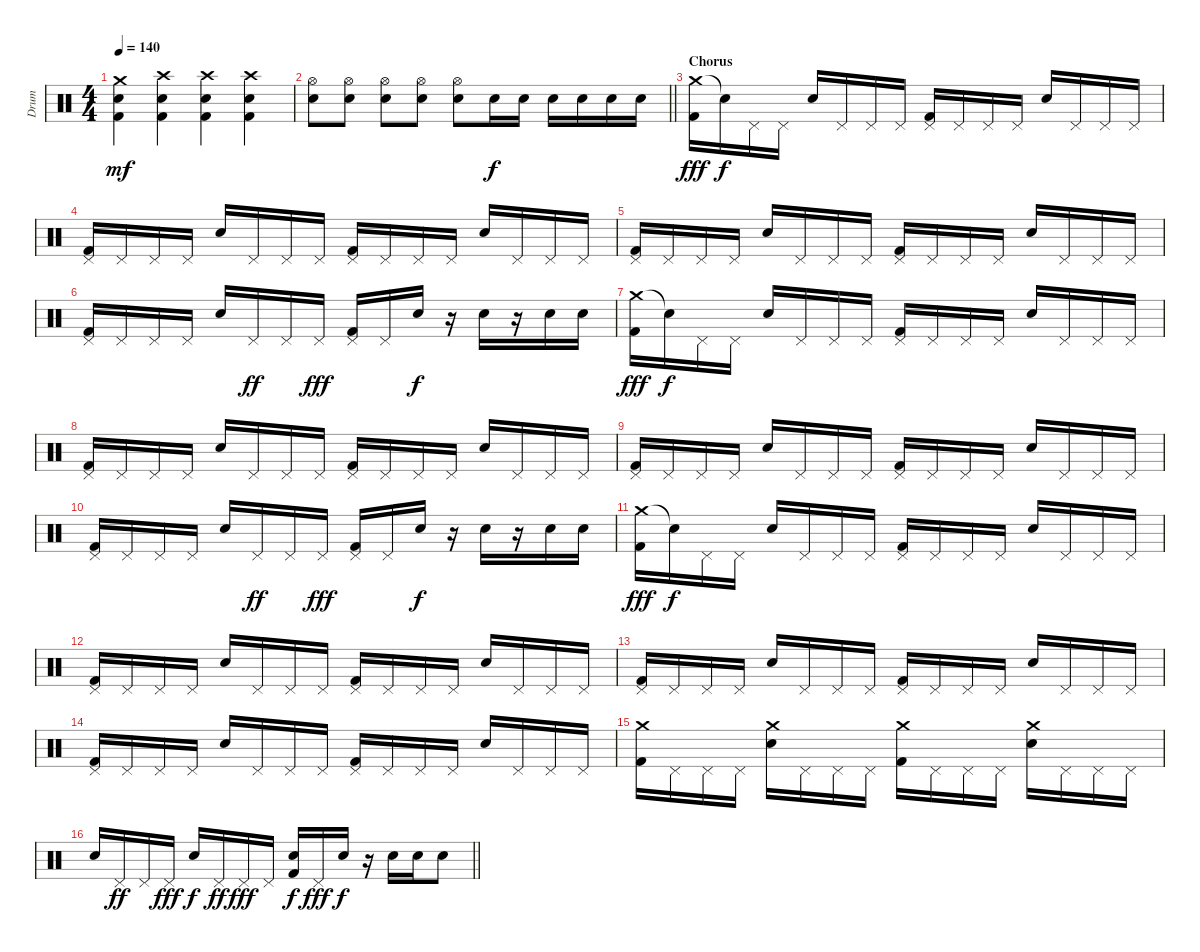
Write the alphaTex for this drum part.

\track ("Drum" "Drum") {instrument percussion}
\staff {score}
\articulation defaults
\ts (4 4)
\tempo 140
\clef neutral
\ks c
("Crash medium (hit)" "Snare (hit) 2" "Kick (hit) 2").4{dy mf} ("Crash high (hit)" "Snare (hit) 2" "Kick (hit) 2").4 ("Crash high (hit)" "Snare (hit) 2" "Kick (hit) 2").4 ("Crash high (hit)" "Snare (hit) 2" "Kick (hit) 2").4 |
\barLineRight lightlight
("Hi-Hat (open)" "Snare (hit) 2").8 ("Hi-Hat (open)" "Snare (hit) 2").8 ("Hi-Hat (open)" "Snare (hit) 2").8 ("Hi-Hat (open)" "Snare (hit) 2").8 ("Hi-Hat (open)" "Snare (hit) 2").8 "Snare (hit) 2".16{dy f} "Snare (hit) 2".16 "Snare (hit) 2".16 "Snare (hit) 2".16 "Snare (hit) 2".16 "Snare (hit) 2".16 |
\section ("" "Chorus")
("Crash medium (hit)" "Kick (hit) 2").16{dy fff} "Snare (hit)"{t}.16{dy f} "Pedal Hi-Hat (hit)".16 "Pedal Hi-Hat (hit)".16 "Snare (hit) 2".16 "Pedal Hi-Hat (hit)".16 "Pedal Hi-Hat (hit)".16 "Pedal Hi-Hat (hit)".16 ("Pedal Hi-Hat (hit)" "Kick (hit) 2").16 "Pedal Hi-Hat (hit)".16 "Pedal Hi-Hat (hit)".16 "Pedal Hi-Hat (hit)".16 "Snare (hit) 2".16 "Pedal Hi-Hat (hit)".16 "Pedal Hi-Hat (hit)".16 "Pedal Hi-Hat (hit)".16 |
("Pedal Hi-Hat (hit)" "Kick (hit) 2").16 "Pedal Hi-Hat (hit)".16 "Pedal Hi-Hat (hit)".16 "Pedal Hi-Hat (hit)".16 "Snare (hit) 2".16 "Pedal Hi-Hat (hit)".16 "Pedal Hi-Hat (hit)".16 "Pedal Hi-Hat (hit)".16 ("Pedal Hi-Hat (hit)" "Kick (hit) 2").16 "Pedal Hi-Hat (hit)".16 "Pedal Hi-Hat (hit)".16 "Pedal Hi-Hat (hit)".16 "Snare (hit) 2".16 "Pedal Hi-Hat (hit)".16 "Pedal Hi-Hat (hit)".16 "Pedal Hi-Hat (hit)".16 |
("Pedal Hi-Hat (hit)" "Kick (hit) 2").16 "Pedal Hi-Hat (hit)".16 "Pedal Hi-Hat (hit)".16 "Pedal Hi-Hat (hit)".16 "Snare (hit) 2".16 "Pedal Hi-Hat (hit)".16 "Pedal Hi-Hat (hit)".16 "Pedal Hi-Hat (hit)".16 ("Pedal Hi-Hat (hit)" "Kick (hit) 2").16 "Pedal Hi-Hat (hit)".16 "Pedal Hi-Hat (hit)".16 "Pedal Hi-Hat (hit)".16 "Snare (hit) 2".16 "Pedal Hi-Hat (hit)".16 "Pedal Hi-Hat (hit)".16 "Pedal Hi-Hat (hit)".16 |
("Pedal Hi-Hat (hit)" "Kick (hit) 2").16 "Pedal Hi-Hat (hit)".16 "Pedal Hi-Hat (hit)".16 "Pedal Hi-Hat (hit)".16 "Snare (hit) 2".16 "Pedal Hi-Hat (hit)".16{dy ff} "Pedal Hi-Hat (hit)".16 "Pedal Hi-Hat (hit)".16{dy fff} ("Pedal Hi-Hat (hit)" "Kick (hit) 2").16 "Pedal Hi-Hat (hit)".16 "Snare (hit) 2".16{dy f} r.16 "Snare (hit) 2".16 r.16 "Snare (hit) 2".16 "Snare (hit) 2".16 |
("Crash medium (hit)" "Kick (hit) 2").16{dy fff} "Snare (hit)"{t}.16{dy f} "Pedal Hi-Hat (hit)".16 "Pedal Hi-Hat (hit)".16 "Snare (hit) 2".16 "Pedal Hi-Hat (hit)".16 "Pedal Hi-Hat (hit)".16 "Pedal Hi-Hat (hit)".16 ("Pedal Hi-Hat (hit)" "Kick (hit) 2").16 "Pedal Hi-Hat (hit)".16 "Pedal Hi-Hat (hit)".16 "Pedal Hi-Hat (hit)".16 "Snare (hit) 2".16 "Pedal Hi-Hat (hit)".16 "Pedal Hi-Hat (hit)".16 "Pedal Hi-Hat (hit)".16 |
("Pedal Hi-Hat (hit)" "Kick (hit) 2").16 "Pedal Hi-Hat (hit)".16 "Pedal Hi-Hat (hit)".16 "Pedal Hi-Hat (hit)".16 "Snare (hit) 2".16 "Pedal Hi-Hat (hit)".16 "Pedal Hi-Hat (hit)".16 "Pedal Hi-Hat (hit)".16 ("Pedal Hi-Hat (hit)" "Kick (hit) 2").16 "Pedal Hi-Hat (hit)".16 "Pedal Hi-Hat (hit)".16 "Pedal Hi-Hat (hit)".16 "Snare (hit) 2".16 "Pedal Hi-Hat (hit)".16 "Pedal Hi-Hat (hit)".16 "Pedal Hi-Hat (hit)".16 |
("Pedal Hi-Hat (hit)" "Kick (hit) 2").16 "Pedal Hi-Hat (hit)".16 "Pedal Hi-Hat (hit)".16 "Pedal Hi-Hat (hit)".16 "Snare (hit) 2".16 "Pedal Hi-Hat (hit)".16 "Pedal Hi-Hat (hit)".16 "Pedal Hi-Hat (hit)".16 ("Pedal Hi-Hat (hit)" "Kick (hit) 2").16 "Pedal Hi-Hat (hit)".16 "Pedal Hi-Hat (hit)".16 "Pedal Hi-Hat (hit)".16 "Snare (hit) 2".16 "Pedal Hi-Hat (hit)".16 "Pedal Hi-Hat (hit)".16 "Pedal Hi-Hat (hit)".16 |
("Pedal Hi-Hat (hit)" "Kick (hit) 2").16 "Pedal Hi-Hat (hit)".16 "Pedal Hi-Hat (hit)".16 "Pedal Hi-Hat (hit)".16 "Snare (hit) 2".16 "Pedal Hi-Hat (hit)".16{dy ff} "Pedal Hi-Hat (hit)".16 "Pedal Hi-Hat (hit)".16{dy fff} ("Pedal Hi-Hat (hit)" "Kick (hit) 2").16 "Pedal Hi-Hat (hit)".16 "Snare (hit) 2".16{dy f} r.16 "Snare (hit) 2".16 r.16 "Snare (hit) 2".16 "Snare (hit) 2".16 |
("Crash medium (hit)" "Kick (hit) 2").16{dy fff} "Snare (hit)"{t}.16{dy f} "Pedal Hi-Hat (hit)".16 "Pedal Hi-Hat (hit)".16 "Snare (hit) 2".16 "Pedal Hi-Hat (hit)".16 "Pedal Hi-Hat (hit)".16 "Pedal Hi-Hat (hit)".16 ("Pedal Hi-Hat (hit)" "Kick (hit) 2").16 "Pedal Hi-Hat (hit)".16 "Pedal Hi-Hat (hit)".16 "Pedal Hi-Hat (hit)".16 "Snare (hit) 2".16 "Pedal Hi-Hat (hit)".16 "Pedal Hi-Hat (hit)".16 "Pedal Hi-Hat (hit)".16 |
("Pedal Hi-Hat (hit)" "Kick (hit) 2").16 "Pedal Hi-Hat (hit)".16 "Pedal Hi-Hat (hit)".16 "Pedal Hi-Hat (hit)".16 "Snare (hit) 2".16 "Pedal Hi-Hat (hit)".16 "Pedal Hi-Hat (hit)".16 "Pedal Hi-Hat (hit)".16 ("Pedal Hi-Hat (hit)" "Kick (hit) 2").16 "Pedal Hi-Hat (hit)".16 "Pedal Hi-Hat (hit)".16 "Pedal Hi-Hat (hit)".16 "Snare (hit) 2".16 "Pedal Hi-Hat (hit)".16 "Pedal Hi-Hat (hit)".16 "Pedal Hi-Hat (hit)".16 |
("Pedal Hi-Hat (hit)" "Kick (hit) 2").16 "Pedal Hi-Hat (hit)".16 "Pedal Hi-Hat (hit)".16 "Pedal Hi-Hat (hit)".16 "Snare (hit) 2".16 "Pedal Hi-Hat (hit)".16 "Pedal Hi-Hat (hit)".16 "Pedal Hi-Hat (hit)".16 ("Pedal Hi-Hat (hit)" "Kick (hit) 2").16 "Pedal Hi-Hat (hit)".16 "Pedal Hi-Hat (hit)".16 "Pedal Hi-Hat (hit)".16 "Snare (hit) 2".16 "Pedal Hi-Hat (hit)".16 "Pedal Hi-Hat (hit)".16 "Pedal Hi-Hat (hit)".16 |
("Pedal Hi-Hat (hit)" "Kick (hit) 2").16 "Pedal Hi-Hat (hit)".16 "Pedal Hi-Hat (hit)".16 "Pedal Hi-Hat (hit)".16 "Snare (hit) 2".16 "Pedal Hi-Hat (hit)".16 "Pedal Hi-Hat (hit)".16 "Pedal Hi-Hat (hit)".16 ("Pedal Hi-Hat (hit)" "Kick (hit) 2").16 "Pedal Hi-Hat (hit)".16 "Pedal Hi-Hat (hit)".16 "Pedal Hi-Hat (hit)".16 "Snare (hit) 2".16 "Pedal Hi-Hat (hit)".16 "Pedal Hi-Hat (hit)".16 "Pedal Hi-Hat (hit)".16 |
("Crash medium (hit)" "Kick (hit) 2").16 "Pedal Hi-Hat (hit)".16 "Pedal Hi-Hat (hit)".16 "Pedal Hi-Hat (hit)".16 ("Crash medium (hit)" "Snare (hit) 2").16 "Pedal Hi-Hat (hit)".16 "Pedal Hi-Hat (hit)".16 "Pedal Hi-Hat (hit)".16 ("Crash medium (hit)" "Kick (hit) 2").16 "Pedal Hi-Hat (hit)".16 "Pedal Hi-Hat (hit)".16 "Pedal Hi-Hat (hit)".16 ("Crash medium (hit)" "Snare (hit) 2").16 "Pedal Hi-Hat (hit)".16 "Pedal Hi-Hat (hit)".16 "Pedal Hi-Hat (hit)".16 |
\barLineRight lightlight "Snare (hit) 2".16 "Pedal Hi-Hat (hit)".16{dy ff} "Pedal Hi-Hat (hit)".16 "Pedal Hi-Hat (hit)".16{dy fff} "Snare (hit) 2".16{dy f} "Pedal Hi-Hat (hit)".16{dy ff} "Pedal Hi-Hat (hit)".16{dy fff} "Pedal Hi-Hat (hit)".16
("Snare (hit) 2" "Kick (hit) 2").16{dy f} "Pedal Hi-Hat (hit)".16{dy fff} "Snare (hit) 2".16{dy f} r.16 "Snare (hit) 2".16 "Snare (hit) 2".16 "Snare (hit) 2".8
